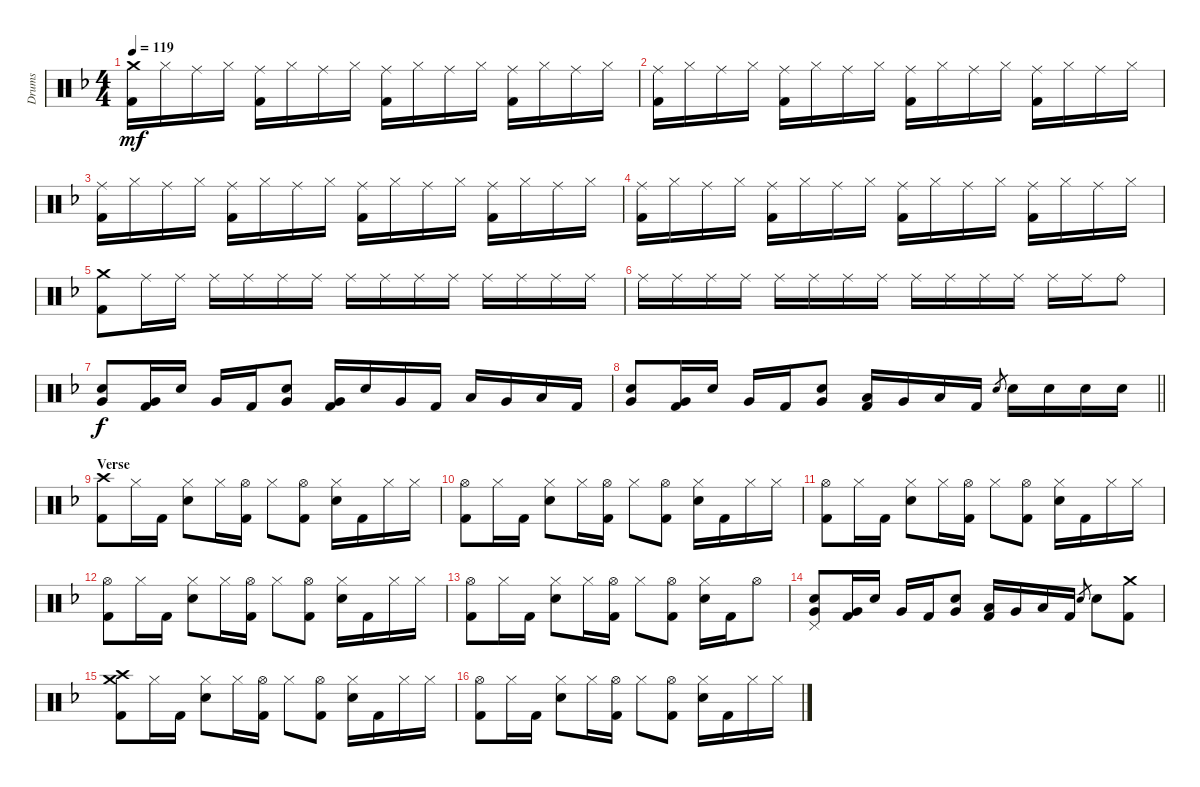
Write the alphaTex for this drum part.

\track ("Drums" "Drums") {instrument percussion}
\staff {score}
\articulation defaults
\ts (4 4)
\tempo 119
\clef neutral
\ks dminor
("Crash medium (hit)" "Kick (hit) 2").16{dy mf} "Hi-Hat (closed)".16 "Ride (middle)".16 "Hi-Hat (closed)".16 ("Ride (middle)" "Kick (hit) 2").16 "Hi-Hat (closed)".16 "Ride (middle)".16 "Hi-Hat (closed)".16 ("Ride (middle)" "Kick (hit) 2").16 "Hi-Hat (closed)".16 "Ride (middle)".16 "Hi-Hat (closed)".16 ("Ride (middle)" "Kick (hit) 2").16 "Hi-Hat (closed)".16 "Ride (middle)".16 "Hi-Hat (closed)".16 |
("Ride (middle)" "Kick (hit) 2").16 "Hi-Hat (closed)".16 "Ride (middle)".16 "Hi-Hat (closed)".16 ("Ride (middle)" "Kick (hit) 2").16 "Hi-Hat (closed)".16 "Ride (middle)".16 "Hi-Hat (closed)".16 ("Ride (middle)" "Kick (hit) 2").16 "Hi-Hat (closed)".16 "Ride (middle)".16 "Hi-Hat (closed)".16 ("Ride (middle)" "Kick (hit) 2").16 "Hi-Hat (closed)".16 "Ride (middle)".16 "Hi-Hat (closed)".16 |
("Ride (middle)" "Kick (hit) 2").16 "Hi-Hat (closed)".16 "Ride (middle)".16 "Hi-Hat (closed)".16 ("Ride (middle)" "Kick (hit) 2").16 "Hi-Hat (closed)".16 "Ride (middle)".16 "Hi-Hat (closed)".16 ("Ride (middle)" "Kick (hit) 2").16 "Hi-Hat (closed)".16 "Ride (middle)".16 "Hi-Hat (closed)".16 ("Ride (middle)" "Kick (hit) 2").16 "Hi-Hat (closed)".16 "Ride (middle)".16 "Hi-Hat (closed)".16 |
("Ride (middle)" "Kick (hit) 2").16 "Hi-Hat (closed)".16 "Ride (middle)".16 "Hi-Hat (closed)".16 ("Ride (middle)" "Kick (hit) 2").16 "Hi-Hat (closed)".16 "Ride (middle)".16 "Hi-Hat (closed)".16 ("Ride (middle)" "Kick (hit) 2").16 "Hi-Hat (closed)".16 "Ride (middle)".16 "Hi-Hat (closed)".16 ("Ride (middle)" "Kick (hit) 2").16 "Hi-Hat (closed)".16 "Ride (middle)".16 "Hi-Hat (closed)".16 |
("Crash medium (hit)" "Kick (hit) 2").8 "Ride (middle)".16 "Ride (middle)".16 "Ride (middle)".16 "Ride (middle)".16 "Ride (middle)".16 "Ride (middle)".16 "Ride (middle)".16 "Ride (middle)".16 "Ride (middle)".16 "Ride (middle)".16 "Ride (middle)".16 "Ride (middle)".16 "Ride (middle)".16 "Ride (middle)".16 |
"Ride (middle)".16 "Ride (middle)".16 "Ride (middle)".16 "Ride (middle)".16 "Ride (middle)".16 "Ride (middle)".16 "Ride (middle)".16 "Ride (middle)".16 "Ride (middle)".16 "Ride (middle)".16 "Ride (middle)".16 "Ride (middle)".16 "Ride (middle)".16 "Ride (middle)".16 "Ride (bell)".8 |
("Electric Snare (hit)" "Very Low Tom (hit)").8{dy f} ("Very Low Tom (hit)" "Kick (hit) 2").16 "Electric Snare (hit)".16 "Very Low Tom (hit)".16 "Kick (hit) 2".16 ("Electric Snare (hit)" "Very Low Tom (hit)").8 ("Very Low Tom (hit)" "Kick (hit) 2").16 "Electric Snare (hit)".16 "Very Low Tom (hit)".16 "Kick (hit) 2".16 "Low Floor Tom (hit)".16 "Very Low Tom (hit)".16 "Low Floor Tom (hit)".16 "Kick (hit) 2".16 |
\barLineRight lightlight
("Electric Snare (hit)" "Very Low Tom (hit)").8 ("Very Low Tom (hit)" "Kick (hit) 2").16 "Electric Snare (hit)".16 "Very Low Tom (hit)".16 "Kick (hit) 2".16 ("Electric Snare (hit)" "Very Low Tom (hit)").8 ("Low Floor Tom (hit)" "Kick (hit) 2").16 "Very Low Tom (hit)".16 "Low Floor Tom (hit)".16 "Kick (hit) 2".16 "Electric Snare (hit)".8{gr} "Electric Snare (hit)".16 "Electric Snare (hit)".16 "Electric Snare (hit)".16 "Electric Snare (hit)".16 |
\section ("" "Verse")
("Crash high (hit)" "Kick (hit) 2").8 "Hi-Hat (closed)".16 "Kick (hit) 2".16 ("Hi-Hat (closed)" "Electric Snare (hit)").8 "Hi-Hat (closed)".16 ("Hi-Hat (open)" "Kick (hit) 2").16 "Hi-Hat (closed)".8 ("Hi-Hat (open)" "Kick (hit) 2").8 ("Hi-Hat (closed)" "Electric Snare (hit)").16 "Kick (hit) 2".16 "Hi-Hat (closed)".16 "Hi-Hat (closed)".16 |
("Hi-Hat (open)" "Kick (hit) 2").8 "Hi-Hat (closed)".16 "Kick (hit) 2".16 ("Hi-Hat (closed)" "Electric Snare (hit)").8 "Hi-Hat (closed)".16 ("Hi-Hat (open)" "Kick (hit) 2").16 "Hi-Hat (closed)".8 ("Hi-Hat (open)" "Kick (hit) 2").8 ("Hi-Hat (closed)" "Electric Snare (hit)").16 "Kick (hit) 2".16 "Hi-Hat (closed)".16 "Hi-Hat (closed)".16 |
("Hi-Hat (open)" "Kick (hit) 2").8 "Hi-Hat (closed)".16 "Kick (hit) 2".16 ("Hi-Hat (closed)" "Electric Snare (hit)").8 "Hi-Hat (closed)".16 ("Hi-Hat (open)" "Kick (hit) 2").16 "Hi-Hat (closed)".8 ("Hi-Hat (open)" "Kick (hit) 2").8 ("Hi-Hat (closed)" "Electric Snare (hit)").16 "Kick (hit) 2".16 "Hi-Hat (closed)".16 "Hi-Hat (closed)".16 |
("Hi-Hat (open)" "Kick (hit) 2").8 "Hi-Hat (closed)".16 "Kick (hit) 2".16 ("Hi-Hat (closed)" "Electric Snare (hit)").8 "Hi-Hat (closed)".16 ("Hi-Hat (open)" "Kick (hit) 2").16 "Hi-Hat (closed)".8 ("Hi-Hat (open)" "Kick (hit) 2").8 ("Hi-Hat (closed)" "Electric Snare (hit)").16 "Kick (hit) 2".16 "Hi-Hat (closed)".16 "Hi-Hat (closed)".16 |
("Hi-Hat (open)" "Kick (hit) 2").8 "Hi-Hat (closed)".16 "Kick (hit) 2".16 ("Hi-Hat (closed)" "Electric Snare (hit)").8 "Hi-Hat (closed)".16 ("Hi-Hat (open)" "Kick (hit) 2").16 "Hi-Hat (closed)".8 ("Hi-Hat (open)" "Kick (hit) 2").8 ("Hi-Hat (closed)" "Electric Snare (hit)").16 "Kick (hit) 2".16 "Hi-Hat (open)".8 |
("Electric Snare (hit)" "Very Low Tom (hit)" "Pedal Hi-Hat (hit)").8 ("Very Low Tom (hit)" "Kick (hit) 2").16 "Electric Snare (hit)".16 "Very Low Tom (hit)".16 "Kick (hit) 2".16 ("Electric Snare (hit)" "Very Low Tom (hit)").8 ("Low Floor Tom (hit)" "Kick (hit) 2").16 "Very Low Tom (hit)".16 "Low Floor Tom (hit)".16 "Kick (hit) 2".16 "Electric Snare (hit)".8{gr} "Electric Snare (hit)".8 ("Crash medium (hit)" "Kick (hit) 2").8 |
("Crash high (hit)" "Crash medium (hit)" "Kick (hit) 2").8 "Hi-Hat (closed)".16 "Kick (hit) 2".16 ("Hi-Hat (closed)" "Electric Snare (hit)").8 "Hi-Hat (closed)".16 ("Hi-Hat (open)" "Kick (hit) 2").16 "Hi-Hat (closed)".8 ("Hi-Hat (open)" "Kick (hit) 2").8 ("Hi-Hat (closed)" "Electric Snare (hit)").16 "Kick (hit) 2".16 "Hi-Hat (closed)".16 "Hi-Hat (closed)".16 |
("Hi-Hat (open)" "Kick (hit) 2").8 "Hi-Hat (closed)".16 "Kick (hit) 2".16 ("Hi-Hat (closed)" "Electric Snare (hit)").8 "Hi-Hat (closed)".16 ("Hi-Hat (open)" "Kick (hit) 2").16 "Hi-Hat (closed)".8 ("Hi-Hat (open)" "Kick (hit) 2").8 ("Hi-Hat (closed)" "Electric Snare (hit)").16 "Kick (hit) 2".16 "Hi-Hat (closed)".16 "Hi-Hat (closed)".16
